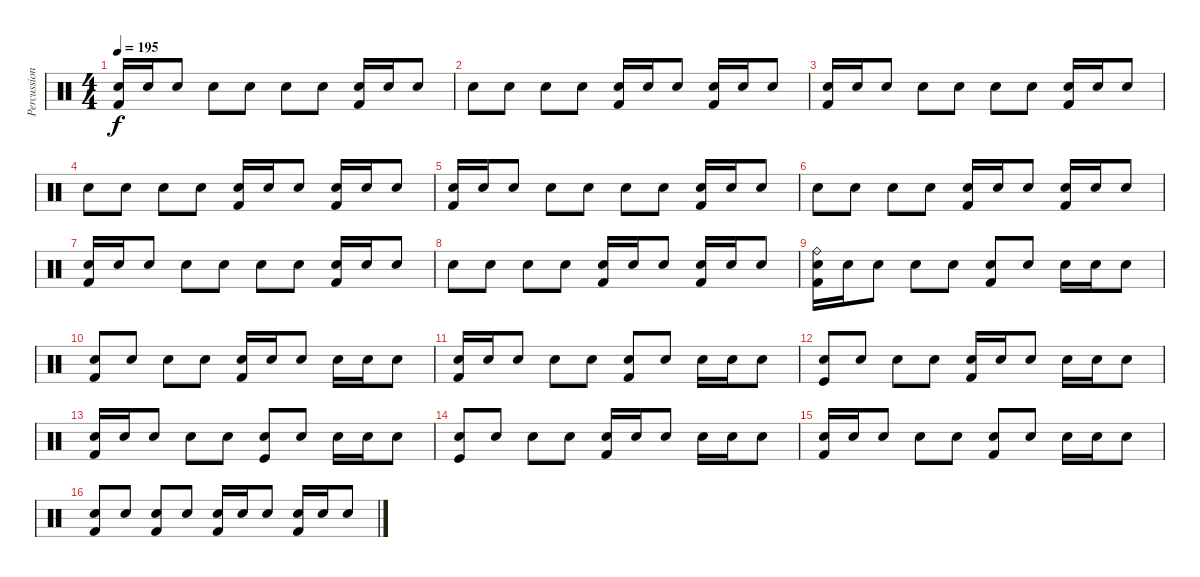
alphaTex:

\track ("Percussion" "Percussion") {instrument percussion}
\staff {score}
\articulation defaults
\ts (4 4)
\tempo 195
\clef neutral
\ks c
("Snare (hit) 2" "Kick (hit) 2").16{dy f} "Snare (hit) 2".16 "Snare (hit) 2".8 "Snare (hit) 2".8 "Snare (hit) 2".8 "Snare (hit) 2".8 "Snare (hit) 2".8 ("Snare (hit) 2" "Kick (hit) 2").16 "Snare (hit) 2".16 "Snare (hit) 2".8 |
"Snare (hit) 2".8 "Snare (hit) 2".8 "Snare (hit) 2".8 "Snare (hit) 2".8 ("Snare (hit) 2" "Kick (hit) 2").16 "Snare (hit) 2".16 "Snare (hit) 2".8 ("Snare (hit) 2" "Kick (hit) 2").16 "Snare (hit) 2".16 "Snare (hit) 2".8 |
("Snare (hit) 2" "Kick (hit) 2").16 "Snare (hit) 2".16 "Snare (hit) 2".8 "Snare (hit) 2".8 "Snare (hit) 2".8 "Snare (hit) 2".8 "Snare (hit) 2".8 ("Snare (hit) 2" "Kick (hit) 2").16 "Snare (hit) 2".16 "Snare (hit) 2".8 |
"Snare (hit) 2".8 "Snare (hit) 2".8 "Snare (hit) 2".8 "Snare (hit) 2".8 ("Snare (hit) 2" "Kick (hit) 2").16 "Snare (hit) 2".16 "Snare (hit) 2".8 ("Snare (hit) 2" "Kick (hit) 2").16 "Snare (hit) 2".16 "Snare (hit) 2".8 |
("Snare (hit) 2" "Kick (hit) 2").16 "Snare (hit) 2".16 "Snare (hit) 2".8 "Snare (hit) 2".8 "Snare (hit) 2".8 "Snare (hit) 2".8 "Snare (hit) 2".8 ("Snare (hit) 2" "Kick (hit) 2").16 "Snare (hit) 2".16 "Snare (hit) 2".8 |
"Snare (hit) 2".8 "Snare (hit) 2".8 "Snare (hit) 2".8 "Snare (hit) 2".8 ("Snare (hit) 2" "Kick (hit) 2").16 "Snare (hit) 2".16 "Snare (hit) 2".8 ("Snare (hit) 2" "Kick (hit) 2").16 "Snare (hit) 2".16 "Snare (hit) 2".8 |
("Snare (hit) 2" "Kick (hit) 2").16 "Snare (hit) 2".16 "Snare (hit) 2".8 "Snare (hit) 2".8 "Snare (hit) 2".8 "Snare (hit) 2".8 "Snare (hit) 2".8 ("Snare (hit) 2" "Kick (hit) 2").16 "Snare (hit) 2".16 "Snare (hit) 2".8 |
"Snare (hit) 2".8 "Snare (hit) 2".8 "Snare (hit) 2".8 "Snare (hit) 2".8 ("Snare (hit) 2" "Kick (hit) 2").16 "Snare (hit) 2".16 "Snare (hit) 2".8 ("Snare (hit) 2" "Kick (hit) 2").16 "Snare (hit) 2".16 "Snare (hit) 2".8 |
("Ride (bell)" "Snare (hit) 2" "Kick (hit) 2").16 "Snare (hit) 2".16 "Snare (hit) 2".8 "Snare (hit) 2".8 "Snare (hit) 2".8 ("Snare (hit) 2" "Kick (hit) 2").8 "Snare (hit) 2".8 "Snare (hit) 2".16 "Snare (hit) 2".16 "Snare (hit) 2".8 |
("Snare (hit) 2" "Kick (hit) 2").8 "Snare (hit) 2".8 "Snare (hit) 2".8 "Snare (hit) 2".8 ("Snare (hit) 2" "Kick (hit) 2").16 "Snare (hit) 2".16 "Snare (hit) 2".8 "Snare (hit) 2".16 "Snare (hit) 2".16 "Snare (hit) 2".8 |
("Snare (hit) 2" "Kick (hit) 2").16 "Snare (hit) 2".16 "Snare (hit) 2".8 "Snare (hit) 2".8 "Snare (hit) 2".8 ("Snare (hit) 2" "Kick (hit) 2").8 "Snare (hit) 2".8 "Snare (hit) 2".16 "Snare (hit) 2".16 "Snare (hit) 2".8 |
("Snare (hit) 2" "Kick (hit)").8 "Snare (hit) 2".8 "Snare (hit) 2".8 "Snare (hit) 2".8 ("Snare (hit) 2" "Kick (hit) 2").16 "Snare (hit) 2".16 "Snare (hit) 2".8 "Snare (hit) 2".16 "Snare (hit) 2".16 "Snare (hit) 2".8 |
("Snare (hit) 2" "Kick (hit) 2").16 "Snare (hit) 2".16 "Snare (hit) 2".8 "Snare (hit) 2".8 "Snare (hit) 2".8 ("Snare (hit) 2" "Kick (hit)").8 "Snare (hit) 2".8 "Snare (hit) 2".16 "Snare (hit) 2".16 "Snare (hit) 2".8 |
("Snare (hit) 2" "Kick (hit)").8 "Snare (hit) 2".8 "Snare (hit) 2".8 "Snare (hit) 2".8 ("Snare (hit) 2" "Kick (hit) 2").16 "Snare (hit) 2".16 "Snare (hit) 2".8 "Snare (hit) 2".16 "Snare (hit) 2".16 "Snare (hit) 2".8 |
("Snare (hit) 2" "Kick (hit) 2").16 "Snare (hit) 2".16 "Snare (hit) 2".8 "Snare (hit) 2".8 "Snare (hit) 2".8 ("Snare (hit) 2" "Kick (hit) 2").8 "Snare (hit) 2".8 "Snare (hit) 2".16 "Snare (hit) 2".16 "Snare (hit) 2".8 |
("Snare (hit) 2" "Kick (hit) 2").8 "Snare (hit) 2".8 ("Snare (hit) 2" "Kick (hit) 2").8 "Snare (hit) 2".8 ("Snare (hit) 2" "Kick (hit) 2").16 "Snare (hit) 2".16 "Snare (hit) 2".8 ("Snare (hit) 2" "Kick (hit) 2").16 "Snare (hit) 2".16 "Snare (hit) 2".8
